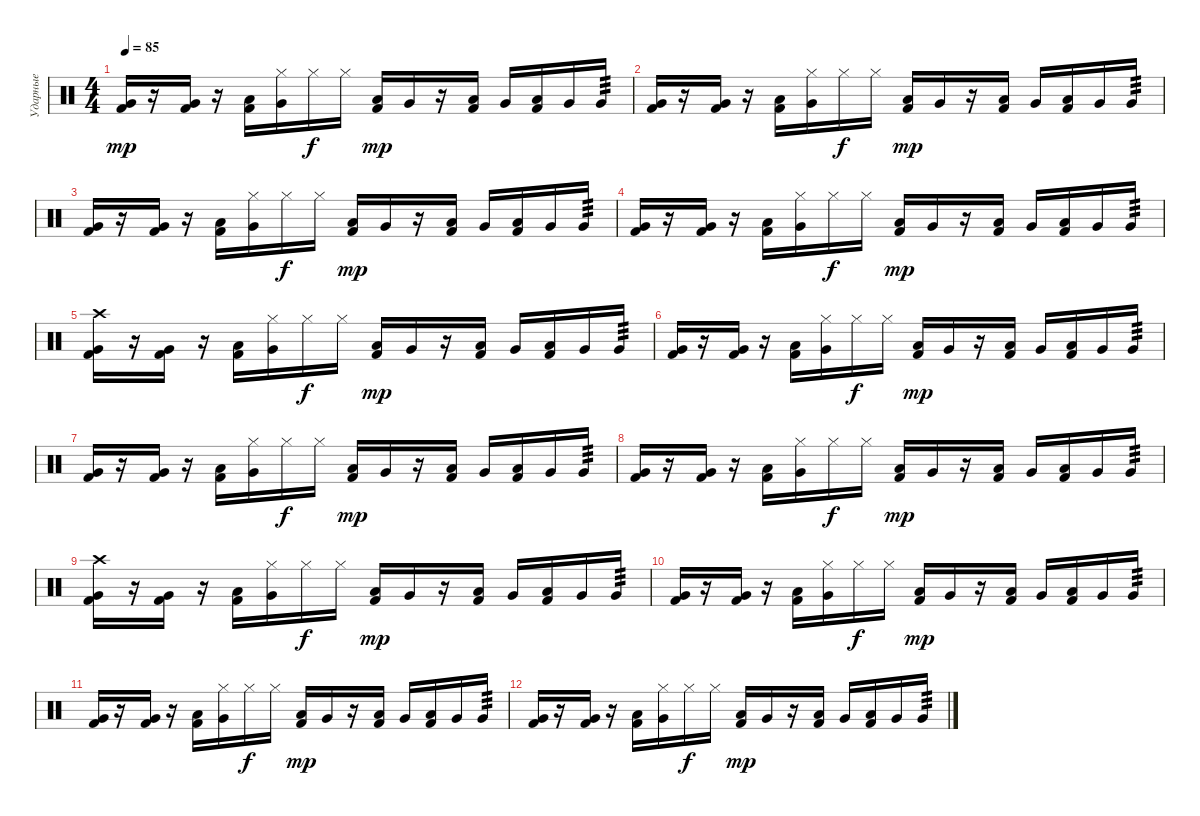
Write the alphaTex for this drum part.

\track ("Ударные" "Ударные") {instrument percussion}
\staff {score}
\articulation defaults
\ts (4 4)
\tempo 85
\clef neutral
\ks c
("Very Low Tom (hit)" "Kick (hit) 2").16{dy mp} r.16 ("Very Low Tom (hit)" "Kick (hit) 2").16 r.16 ("Low Tom (hit)" "Kick (hit) 2").16 ("Hi-Hat (closed)" "Very Low Tom (hit)").16 "Hi-Hat (closed)".16{dy f} "Hi-Hat (closed)".16 ("Low Tom (hit)" "Kick (hit) 2").16{dy mp} "Very Low Tom (hit)".16 r.16 ("Low Tom (hit)" "Kick (hit) 2").16 "Very Low Tom (hit)".16 ("Low Tom (hit)" "Kick (hit) 2").16 "Very Low Tom (hit)".16 "Very Low Tom (hit)".16{tp 3} |
("Very Low Tom (hit)" "Kick (hit) 2").16 r.16 ("Very Low Tom (hit)" "Kick (hit) 2").16 r.16 ("Low Tom (hit)" "Kick (hit) 2").16 ("Hi-Hat (closed)" "Very Low Tom (hit)").16 "Hi-Hat (closed)".16{dy f} "Hi-Hat (closed)".16 ("Low Tom (hit)" "Kick (hit) 2").16{dy mp} "Very Low Tom (hit)".16 r.16 ("Low Tom (hit)" "Kick (hit) 2").16 "Very Low Tom (hit)".16 ("Low Tom (hit)" "Kick (hit) 2").16 "Very Low Tom (hit)".16 "Very Low Tom (hit)".16{tp 3} |
("Very Low Tom (hit)" "Kick (hit) 2").16 r.16 ("Very Low Tom (hit)" "Kick (hit) 2").16 r.16 ("Low Tom (hit)" "Kick (hit) 2").16 ("Hi-Hat (closed)" "Very Low Tom (hit)").16 "Hi-Hat (closed)".16{dy f} "Hi-Hat (closed)".16 ("Low Tom (hit)" "Kick (hit) 2").16{dy mp} "Very Low Tom (hit)".16 r.16 ("Low Tom (hit)" "Kick (hit) 2").16 "Very Low Tom (hit)".16 ("Low Tom (hit)" "Kick (hit) 2").16 "Very Low Tom (hit)".16 "Very Low Tom (hit)".16{tp 3} |
("Very Low Tom (hit)" "Kick (hit) 2").16 r.16 ("Very Low Tom (hit)" "Kick (hit) 2").16 r.16 ("Low Tom (hit)" "Kick (hit) 2").16 ("Hi-Hat (closed)" "Very Low Tom (hit)").16 "Hi-Hat (closed)".16{dy f} "Hi-Hat (closed)".16 ("Low Tom (hit)" "Kick (hit) 2").16{dy mp} "Very Low Tom (hit)".16 r.16 ("Low Tom (hit)" "Kick (hit) 2").16 "Very Low Tom (hit)".16 ("Low Tom (hit)" "Kick (hit) 2").16 "Very Low Tom (hit)".16 "Very Low Tom (hit)".16{tp 3} |
("Crash high (hit)" "Very Low Tom (hit)" "Kick (hit) 2").16 r.16 ("Very Low Tom (hit)" "Kick (hit) 2").16 r.16 ("Low Tom (hit)" "Kick (hit) 2").16 ("Hi-Hat (closed)" "Very Low Tom (hit)").16 "Hi-Hat (closed)".16{dy f} "Hi-Hat (closed)".16 ("Low Tom (hit)" "Kick (hit) 2").16{dy mp} "Very Low Tom (hit)".16 r.16 ("Low Tom (hit)" "Kick (hit) 2").16 "Very Low Tom (hit)".16 ("Low Tom (hit)" "Kick (hit) 2").16 "Very Low Tom (hit)".16 "Very Low Tom (hit)".16{tp 3} |
("Very Low Tom (hit)" "Kick (hit) 2").16 r.16 ("Very Low Tom (hit)" "Kick (hit) 2").16 r.16 ("Low Tom (hit)" "Kick (hit) 2").16 ("Hi-Hat (closed)" "Very Low Tom (hit)").16 "Hi-Hat (closed)".16{dy f} "Hi-Hat (closed)".16 ("Low Tom (hit)" "Kick (hit) 2").16{dy mp} "Very Low Tom (hit)".16 r.16 ("Low Tom (hit)" "Kick (hit) 2").16 "Very Low Tom (hit)".16 ("Low Tom (hit)" "Kick (hit) 2").16 "Very Low Tom (hit)".16 "Very Low Tom (hit)".16{tp 3} |
("Very Low Tom (hit)" "Kick (hit) 2").16 r.16 ("Very Low Tom (hit)" "Kick (hit) 2").16 r.16 ("Low Tom (hit)" "Kick (hit) 2").16 ("Hi-Hat (closed)" "Very Low Tom (hit)").16 "Hi-Hat (closed)".16{dy f} "Hi-Hat (closed)".16 ("Low Tom (hit)" "Kick (hit) 2").16{dy mp} "Very Low Tom (hit)".16 r.16 ("Low Tom (hit)" "Kick (hit) 2").16 "Very Low Tom (hit)".16 ("Low Tom (hit)" "Kick (hit) 2").16 "Very Low Tom (hit)".16 "Very Low Tom (hit)".16{tp 3} |
("Very Low Tom (hit)" "Kick (hit) 2").16 r.16 ("Very Low Tom (hit)" "Kick (hit) 2").16 r.16 ("Low Tom (hit)" "Kick (hit) 2").16 ("Hi-Hat (closed)" "Very Low Tom (hit)").16 "Hi-Hat (closed)".16{dy f} "Hi-Hat (closed)".16 ("Low Tom (hit)" "Kick (hit) 2").16{dy mp} "Very Low Tom (hit)".16 r.16 ("Low Tom (hit)" "Kick (hit) 2").16 "Very Low Tom (hit)".16 ("Low Tom (hit)" "Kick (hit) 2").16 "Very Low Tom (hit)".16 "Very Low Tom (hit)".16{tp 3} |
("Crash high (hit)" "Very Low Tom (hit)" "Kick (hit) 2").16 r.16 ("Very Low Tom (hit)" "Kick (hit) 2").16 r.16 ("Low Tom (hit)" "Kick (hit) 2").16 ("Hi-Hat (closed)" "Very Low Tom (hit)").16 "Hi-Hat (closed)".16{dy f} "Hi-Hat (closed)".16 ("Low Tom (hit)" "Kick (hit) 2").16{dy mp} "Very Low Tom (hit)".16 r.16 ("Low Tom (hit)" "Kick (hit) 2").16 "Very Low Tom (hit)".16 ("Low Tom (hit)" "Kick (hit) 2").16 "Very Low Tom (hit)".16 "Very Low Tom (hit)".16{tp 3} |
("Very Low Tom (hit)" "Kick (hit) 2").16 r.16 ("Very Low Tom (hit)" "Kick (hit) 2").16 r.16 ("Low Tom (hit)" "Kick (hit) 2").16 ("Hi-Hat (closed)" "Very Low Tom (hit)").16 "Hi-Hat (closed)".16{dy f} "Hi-Hat (closed)".16 ("Low Tom (hit)" "Kick (hit) 2").16{dy mp} "Very Low Tom (hit)".16 r.16 ("Low Tom (hit)" "Kick (hit) 2").16 "Very Low Tom (hit)".16 ("Low Tom (hit)" "Kick (hit) 2").16 "Very Low Tom (hit)".16 "Very Low Tom (hit)".16{tp 3} |
("Very Low Tom (hit)" "Kick (hit) 2").16 r.16 ("Very Low Tom (hit)" "Kick (hit) 2").16 r.16 ("Low Tom (hit)" "Kick (hit) 2").16 ("Hi-Hat (closed)" "Very Low Tom (hit)").16 "Hi-Hat (closed)".16{dy f} "Hi-Hat (closed)".16 ("Low Tom (hit)" "Kick (hit) 2").16{dy mp} "Very Low Tom (hit)".16 r.16 ("Low Tom (hit)" "Kick (hit) 2").16 "Very Low Tom (hit)".16 ("Low Tom (hit)" "Kick (hit) 2").16 "Very Low Tom (hit)".16 "Very Low Tom (hit)".16{tp 3} |
("Very Low Tom (hit)" "Kick (hit) 2").16 r.16 ("Very Low Tom (hit)" "Kick (hit) 2").16 r.16 ("Low Tom (hit)" "Kick (hit) 2").16 ("Hi-Hat (closed)" "Very Low Tom (hit)").16 "Hi-Hat (closed)".16{dy f} "Hi-Hat (closed)".16 ("Low Tom (hit)" "Kick (hit) 2").16{dy mp} "Very Low Tom (hit)".16 r.16 ("Low Tom (hit)" "Kick (hit) 2").16 "Very Low Tom (hit)".16 ("Low Tom (hit)" "Kick (hit) 2").16 "Very Low Tom (hit)".16 "Very Low Tom (hit)".16{tp 3}
